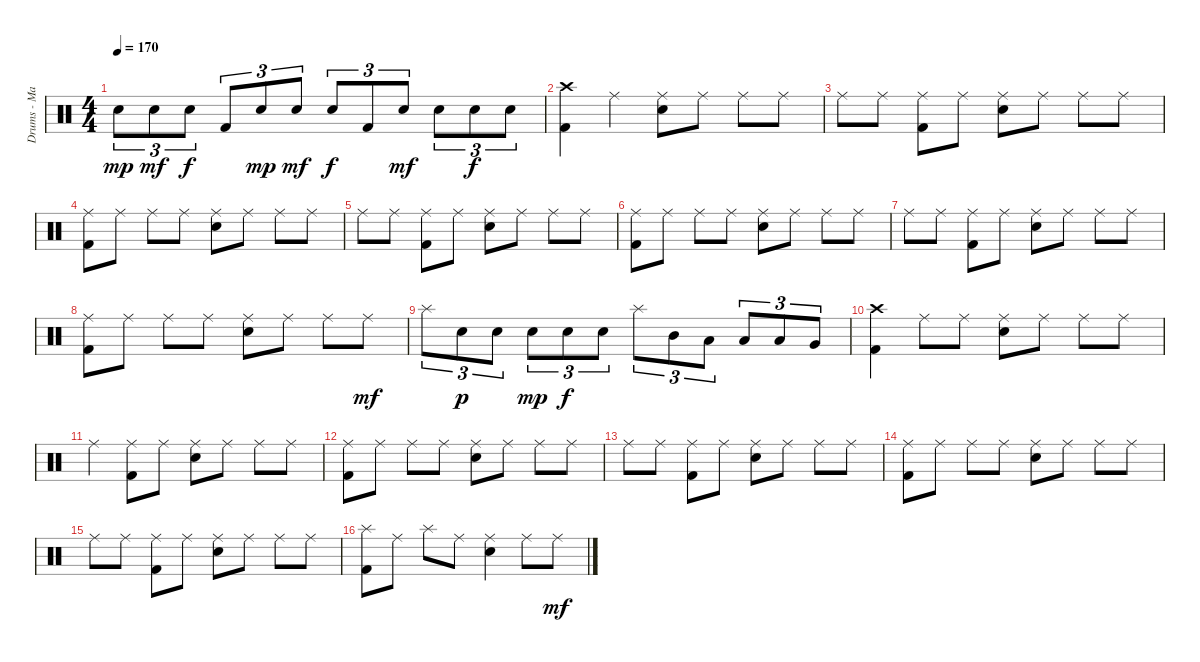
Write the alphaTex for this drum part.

\track ("Drums - Mario Duplantier" "Drums - Ma") {instrument percussion}
\staff {score}
\articulation defaults
\ts (4 4)
\tempo 170
\clef neutral
\ks c "Snare (hit) 2".8{tu (3 2) dy mp} "Snare (hit) 2".8{tu (3 2) dy mf} "Snare (hit) 2".8{tu (3 2) dy f} "Kick (hit) 2".8{tu (3 2)} "Snare (hit) 2".8{tu (3 2) dy mp} "Snare (hit) 2".8{tu (3 2) dy mf} "Snare (hit) 2".8{tu (3 2) dy f} "Kick (hit) 2".8{tu (3 2)} "Snare (hit) 2".8{tu (3 2) dy mf} "Snare (hit) 2".8{tu (3 2)} "Snare (hit) 2".8{tu (3 2) dy f} "Snare (hit) 2".8{tu (3 2)}
|
("Crash high (hit)" "Kick (hit) 2").4 "Ride (middle)".4 ("Ride (middle)" "Snare (hit) 2").8 "Ride (middle)".8 "Ride (middle)".8 "Ride (middle)".8 |
"Ride (middle)".8 "Ride (middle)".8 ("Ride (middle)" "Kick (hit) 2").8 "Ride (middle)".8 ("Ride (middle)" "Snare (hit) 2").8 "Ride (middle)".8 "Ride (middle)".8 "Ride (middle)".8 |
("Ride (middle)" "Kick (hit) 2").8 "Ride (middle)".8 "Ride (middle)".8 "Ride (middle)".8 ("Ride (middle)" "Snare (hit) 2").8 "Ride (middle)".8 "Ride (middle)".8 "Ride (middle)".8 |
"Ride (middle)".8 "Ride (middle)".8 ("Ride (middle)" "Kick (hit) 2").8 "Ride (middle)".8 ("Ride (middle)" "Snare (hit) 2").8 "Ride (middle)".8 "Ride (middle)".8 "Ride (middle)".8 |
("Ride (middle)" "Kick (hit) 2").8 "Ride (middle)".8 "Ride (middle)".8 "Ride (middle)".8 ("Ride (middle)" "Snare (hit) 2").8 "Ride (middle)".8 "Ride (middle)".8 "Ride (middle)".8 |
"Ride (middle)".8 "Ride (middle)".8 ("Ride (middle)" "Kick (hit) 2").8 "Ride (middle)".8 ("Ride (middle)" "Snare (hit) 2").8 "Ride (middle)".8 "Ride (middle)".8 "Ride (middle)".8 |
("Ride (middle)" "Kick (hit) 2").8 "Ride (middle)".8 "Ride (middle)".8 "Ride (middle)".8 ("Ride (middle)" "Snare (hit) 2").8 "Ride (middle)".8 "Ride (middle)".8 "Ride (middle)".8{dy mf} |
"Splash (hit)".8{tu (3 2)} "Snare (hit) 2".8{tu (3 2) dy p} "Snare (hit) 2".8{tu (3 2)} "Snare (hit) 2".8{tu (3 2) dy mp} "Snare (hit) 2".8{tu (3 2) dy f} "Snare (hit) 2".8{tu (3 2)} "Splash (hit)".8{tu (3 2)} "Mid Tom (hit)".8{tu (3 2)} "Low Tom (hit)".8{tu (3 2)} "Low Tom (hit)".8{tu (3 2)} "Low Tom (hit)".8{tu (3 2)} "Very Low Tom (hit)".8{tu (3 2)} |
("Crash high (hit)" "Kick (hit) 2").4 "Ride (middle)".8 "Ride (middle)".8 ("Ride (middle)" "Snare (hit) 2").8 "Ride (middle)".8 "Ride (middle)".8 "Ride (middle)".8 |
"Ride (middle)".4 ("Ride (middle)" "Kick (hit) 2").8 "Ride (middle)".8 ("Ride (middle)" "Snare (hit) 2").8 "Ride (middle)".8 "Ride (middle)".8 "Ride (middle)".8 |
("Ride (middle)" "Kick (hit) 2").8 "Ride (middle)".8 "Ride (middle)".8 "Ride (middle)".8 ("Ride (middle)" "Snare (hit) 2").8 "Ride (middle)".8 "Ride (middle)".8 "Ride (middle)".8 |
"Ride (middle)".8 "Ride (middle)".8 ("Ride (middle)" "Kick (hit) 2").8 "Ride (middle)".8 ("Ride (middle)" "Snare (hit) 2").8 "Ride (middle)".8 "Ride (middle)".8 "Ride (middle)".8 |
("Ride (middle)" "Kick (hit) 2").8 "Ride (middle)".8 "Ride (middle)".8 "Ride (middle)".8 ("Ride (middle)" "Snare (hit) 2").8 "Ride (middle)".8 "Ride (middle)".8 "Ride (middle)".8 |
"Ride (middle)".8 "Ride (middle)".8 ("Ride (middle)" "Kick (hit) 2").8 "Ride (middle)".8 ("Ride (middle)" "Snare (hit) 2").8 "Ride (middle)".8 "Ride (middle)".8 "Ride (middle)".8 |
("Splash (hit)" "Kick (hit) 2").8 "Ride (middle)".8 "Splash (hit)".8 "Ride (middle)".8 ("Ride (middle)" "Snare (hit) 2").4 "Ride (middle)".8 "Ride (middle)".8{dy mf}
